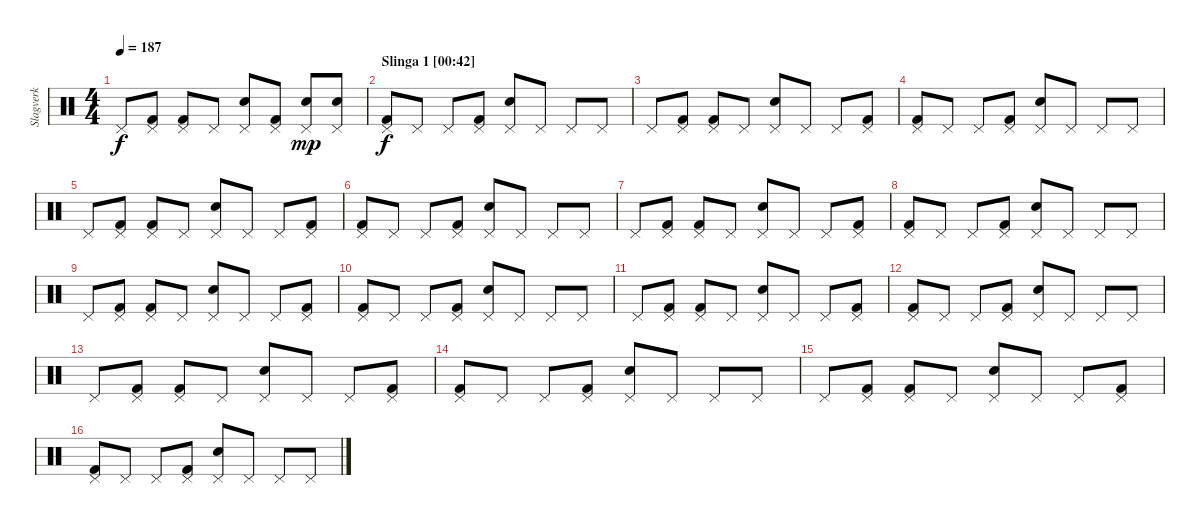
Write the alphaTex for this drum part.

\track ("Slagverk" "Slagverk") {instrument percussion}
\staff {score}
\articulation defaults
\ts (4 4)
\tempo 187
\clef neutral
\ks c "Pedal Hi-Hat (hit)".8{dy f}
("Pedal Hi-Hat (hit)" "Kick (hit) 2").8 ("Pedal Hi-Hat (hit)" "Kick (hit) 2").8 "Pedal Hi-Hat (hit)".8 ("Pedal Hi-Hat (hit)" "Electric Snare (hit)").8 ("Pedal Hi-Hat (hit)" "Kick (hit) 2").8 ("Pedal Hi-Hat (hit)" "Electric Snare (hit)").8{dy mp} ("Pedal Hi-Hat (hit)" "Electric Snare (hit)").8 |
\section ("" "Slinga 1 [00:42]")
("Pedal Hi-Hat (hit)" "Kick (hit) 2").8{dy f} "Pedal Hi-Hat (hit)".8 "Pedal Hi-Hat (hit)".8 ("Pedal Hi-Hat (hit)" "Kick (hit) 2").8 ("Pedal Hi-Hat (hit)" "Electric Snare (hit)").8 "Pedal Hi-Hat (hit)".8 "Pedal Hi-Hat (hit)".8 "Pedal Hi-Hat (hit)".8 |
"Pedal Hi-Hat (hit)".8 ("Pedal Hi-Hat (hit)" "Kick (hit) 2").8 ("Pedal Hi-Hat (hit)" "Kick (hit) 2").8 "Pedal Hi-Hat (hit)".8 ("Pedal Hi-Hat (hit)" "Electric Snare (hit)").8 "Pedal Hi-Hat (hit)".8 "Pedal Hi-Hat (hit)".8 ("Pedal Hi-Hat (hit)" "Kick (hit) 2").8 |
("Pedal Hi-Hat (hit)" "Kick (hit) 2").8 "Pedal Hi-Hat (hit)".8 "Pedal Hi-Hat (hit)".8 ("Pedal Hi-Hat (hit)" "Kick (hit) 2").8 ("Pedal Hi-Hat (hit)" "Electric Snare (hit)").8 "Pedal Hi-Hat (hit)".8 "Pedal Hi-Hat (hit)".8 "Pedal Hi-Hat (hit)".8 |
"Pedal Hi-Hat (hit)".8 ("Pedal Hi-Hat (hit)" "Kick (hit) 2").8 ("Pedal Hi-Hat (hit)" "Kick (hit) 2").8 "Pedal Hi-Hat (hit)".8 ("Pedal Hi-Hat (hit)" "Electric Snare (hit)").8 "Pedal Hi-Hat (hit)".8 "Pedal Hi-Hat (hit)".8 ("Pedal Hi-Hat (hit)" "Kick (hit) 2").8 |
("Pedal Hi-Hat (hit)" "Kick (hit) 2").8 "Pedal Hi-Hat (hit)".8 "Pedal Hi-Hat (hit)".8 ("Pedal Hi-Hat (hit)" "Kick (hit) 2").8 ("Pedal Hi-Hat (hit)" "Electric Snare (hit)").8 "Pedal Hi-Hat (hit)".8 "Pedal Hi-Hat (hit)".8 "Pedal Hi-Hat (hit)".8 |
"Pedal Hi-Hat (hit)".8 ("Pedal Hi-Hat (hit)" "Kick (hit) 2").8 ("Pedal Hi-Hat (hit)" "Kick (hit) 2").8 "Pedal Hi-Hat (hit)".8 ("Pedal Hi-Hat (hit)" "Electric Snare (hit)").8 "Pedal Hi-Hat (hit)".8 "Pedal Hi-Hat (hit)".8 ("Pedal Hi-Hat (hit)" "Kick (hit) 2").8 |
("Pedal Hi-Hat (hit)" "Kick (hit) 2").8 "Pedal Hi-Hat (hit)".8 "Pedal Hi-Hat (hit)".8 ("Pedal Hi-Hat (hit)" "Kick (hit) 2").8 ("Pedal Hi-Hat (hit)" "Electric Snare (hit)").8 "Pedal Hi-Hat (hit)".8 "Pedal Hi-Hat (hit)".8 "Pedal Hi-Hat (hit)".8 |
"Pedal Hi-Hat (hit)".8 ("Pedal Hi-Hat (hit)" "Kick (hit) 2").8 ("Pedal Hi-Hat (hit)" "Kick (hit) 2").8 "Pedal Hi-Hat (hit)".8 ("Pedal Hi-Hat (hit)" "Electric Snare (hit)").8 "Pedal Hi-Hat (hit)".8 "Pedal Hi-Hat (hit)".8 ("Pedal Hi-Hat (hit)" "Kick (hit) 2").8 |
\section ("" "")
("Pedal Hi-Hat (hit)" "Kick (hit) 2").8 "Pedal Hi-Hat (hit)".8 "Pedal Hi-Hat (hit)".8 ("Pedal Hi-Hat (hit)" "Kick (hit) 2").8 ("Pedal Hi-Hat (hit)" "Electric Snare (hit)").8 "Pedal Hi-Hat (hit)".8 "Pedal Hi-Hat (hit)".8 "Pedal Hi-Hat (hit)".8 |
"Pedal Hi-Hat (hit)".8 ("Pedal Hi-Hat (hit)" "Kick (hit) 2").8 ("Pedal Hi-Hat (hit)" "Kick (hit) 2").8 "Pedal Hi-Hat (hit)".8 ("Pedal Hi-Hat (hit)" "Electric Snare (hit)").8 "Pedal Hi-Hat (hit)".8 "Pedal Hi-Hat (hit)".8 ("Pedal Hi-Hat (hit)" "Kick (hit) 2").8 |
("Pedal Hi-Hat (hit)" "Kick (hit) 2").8 "Pedal Hi-Hat (hit)".8 "Pedal Hi-Hat (hit)".8 ("Pedal Hi-Hat (hit)" "Kick (hit) 2").8 ("Pedal Hi-Hat (hit)" "Electric Snare (hit)").8 "Pedal Hi-Hat (hit)".8 "Pedal Hi-Hat (hit)".8 "Pedal Hi-Hat (hit)".8 |
"Pedal Hi-Hat (hit)".8 ("Pedal Hi-Hat (hit)" "Kick (hit) 2").8 ("Pedal Hi-Hat (hit)" "Kick (hit) 2").8 "Pedal Hi-Hat (hit)".8 ("Pedal Hi-Hat (hit)" "Electric Snare (hit)").8 "Pedal Hi-Hat (hit)".8 "Pedal Hi-Hat (hit)".8 ("Pedal Hi-Hat (hit)" "Kick (hit) 2").8 |
("Pedal Hi-Hat (hit)" "Kick (hit) 2").8 "Pedal Hi-Hat (hit)".8 "Pedal Hi-Hat (hit)".8 ("Pedal Hi-Hat (hit)" "Kick (hit) 2").8 ("Pedal Hi-Hat (hit)" "Electric Snare (hit)").8 "Pedal Hi-Hat (hit)".8 "Pedal Hi-Hat (hit)".8 "Pedal Hi-Hat (hit)".8 |
"Pedal Hi-Hat (hit)".8 ("Pedal Hi-Hat (hit)" "Kick (hit) 2").8 ("Pedal Hi-Hat (hit)" "Kick (hit) 2").8 "Pedal Hi-Hat (hit)".8 ("Pedal Hi-Hat (hit)" "Electric Snare (hit)").8 "Pedal Hi-Hat (hit)".8 "Pedal Hi-Hat (hit)".8 ("Pedal Hi-Hat (hit)" "Kick (hit) 2").8 |
("Pedal Hi-Hat (hit)" "Kick (hit) 2").8 "Pedal Hi-Hat (hit)".8 "Pedal Hi-Hat (hit)".8 ("Pedal Hi-Hat (hit)" "Kick (hit) 2").8 ("Pedal Hi-Hat (hit)" "Electric Snare (hit)").8 "Pedal Hi-Hat (hit)".8 "Pedal Hi-Hat (hit)".8 "Pedal Hi-Hat (hit)".8
